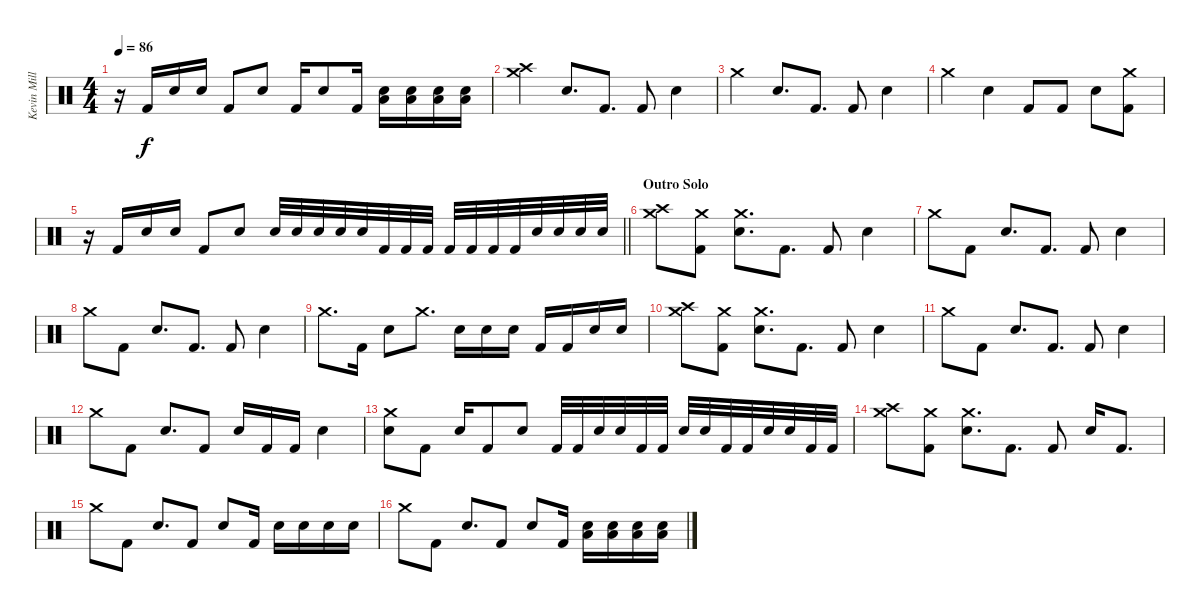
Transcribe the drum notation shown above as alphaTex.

\track ("Kevin Miller (Drums)" "Kevin Mill") {instrument percussion}
\staff {score}
\articulation defaults
\ts (4 4)
\tempo 86
\clef neutral
\ks c
r.16{dy f} "Kick (hit) 2".16 "Electric Snare (hit)".16 "Electric Snare (hit)".16 "Kick (hit) 2".8 "Electric Snare (hit)".8 "Kick (hit) 2".16 "Electric Snare (hit)".8 "Kick (hit) 2".16 ("Snare (hit) 2" "Low Tom (hit)").16 ("Snare (hit) 2" "Low Tom (hit)").16 ("Snare (hit) 2" "Low Tom (hit)").16 ("Snare (hit) 2" "Low Tom (hit)").16 |
("Crash medium (hit)" "Crash high (hit)").4 "Electric Snare (hit)".8{d} "Kick (hit) 2".8{d} "Kick (hit) 2".8 "Electric Snare (hit)".4 |
"Crash medium (hit)".4 "Electric Snare (hit)".8{d} "Kick (hit) 2".8{d} "Kick (hit) 2".8 "Electric Snare (hit)".4 |
"Crash medium (hit)".4 "Electric Snare (hit)".4 "Kick (hit) 2".8 "Kick (hit) 2".8 "Electric Snare (hit)".8 ("Crash medium (hit)" "Kick (hit) 2").8 |
\barLineRight lightlight
r.16 "Kick (hit) 2".16 "Electric Snare (hit)".16 "Electric Snare (hit)".16 "Kick (hit) 2".8 "Electric Snare (hit)".8 "Snare (hit) 2".32 "Snare (hit) 2".32 "Snare (hit) 2".32 "Snare (hit) 2".32 "Snare (hit) 2".32 "Kick (hit) 2".32 "Kick (hit) 2".32 "Kick (hit) 2".32 "Kick (hit) 2".32 "Kick (hit) 2".32 "Kick (hit) 2".32 "Kick (hit) 2".32 "Snare (hit) 2".32 "Snare (hit) 2".32 "Snare (hit) 2".32 "Snare (hit) 2".32 |
\section ("" "Outro Solo")
("Crash medium (hit)" "Crash high (hit)").8 ("Kick (hit) 2" "Crash medium (hit)").8 ("Electric Snare (hit)" "Crash medium (hit)").8{d} "Kick (hit) 2".8{d} "Kick (hit) 2".8 "Electric Snare (hit)".4 |
"Crash medium (hit)".8 "Kick (hit) 2".8 "Electric Snare (hit)".8{d} "Kick (hit) 2".8{d} "Kick (hit) 2".8 "Electric Snare (hit)".4 |
"Crash medium (hit)".8 "Kick (hit) 2".8 "Electric Snare (hit)".8{d} "Kick (hit) 2".8{d} "Kick (hit) 2".8 "Electric Snare (hit)".4 |
"Crash medium (hit)".8{d} "Kick (hit) 2".16 "Electric Snare (hit)".8 "Crash medium (hit)".8{d} "Snare (hit) 2".16 "Snare (hit) 2".16 "Snare (hit) 2".16 "Kick (hit) 2".16 "Kick (hit) 2".16 "Snare (hit) 2".16 "Snare (hit) 2".16 |
("Crash medium (hit)" "Crash high (hit)").8 ("Kick (hit) 2" "Crash medium (hit)").8 ("Electric Snare (hit)" "Crash medium (hit)").8{d} "Kick (hit) 2".8{d} "Kick (hit) 2".8 "Electric Snare (hit)".4 |
"Crash medium (hit)".8 "Kick (hit) 2".8 "Electric Snare (hit)".8{d} "Kick (hit) 2".8{d} "Kick (hit) 2".8 "Electric Snare (hit)".4 |
"Crash medium (hit)".8 "Kick (hit) 2".8 "Electric Snare (hit)".8{d} "Kick (hit) 2".8 "Electric Snare (hit)".16 "Kick (hit) 2".16 "Kick (hit) 2".16 "Electric Snare (hit)".4 |
("Crash medium (hit)" "Electric Snare (hit)").8 "Kick (hit) 2".8 "Electric Snare (hit)".16 "Kick (hit) 2".8 "Electric Snare (hit)".8 "Kick (hit) 2".32 "Kick (hit) 2".32 "Snare (hit) 2".32 "Snare (hit) 2".32 "Kick (hit) 2".32 "Kick (hit) 2".32 "Snare (hit) 2".32 "Snare (hit) 2".32 "Kick (hit) 2".32 "Kick (hit) 2".32 "Snare (hit) 2".32 "Snare (hit) 2".32 "Kick (hit) 2".32 "Kick (hit) 2".32 |
("Crash medium (hit)" "Crash high (hit)").8 ("Kick (hit) 2" "Crash medium (hit)").8 ("Electric Snare (hit)" "Crash medium (hit)").8{d} "Kick (hit) 2".8{d} "Kick (hit) 2".8 "Electric Snare (hit)".16 "Kick (hit) 2".8{d} |
"Crash medium (hit)".8 "Kick (hit) 2".8 "Electric Snare (hit)".8{d} "Kick (hit) 2".8 "Electric Snare (hit)".8 "Kick (hit) 2".16 "Electric Snare (hit)".16 "Electric Snare (hit)".16 "Electric Snare (hit)".16 "Electric Snare (hit)".16 |
"Crash medium (hit)".8 "Kick (hit) 2".8 "Electric Snare (hit)".8{d} "Kick (hit) 2".8 "Electric Snare (hit)".8 "Kick (hit) 2".16 ("Snare (hit) 2" "Low Tom (hit)").16 ("Snare (hit) 2" "Low Tom (hit)").16 ("Snare (hit) 2" "Low Tom (hit)").16 ("Snare (hit) 2" "Low Tom (hit)").16
